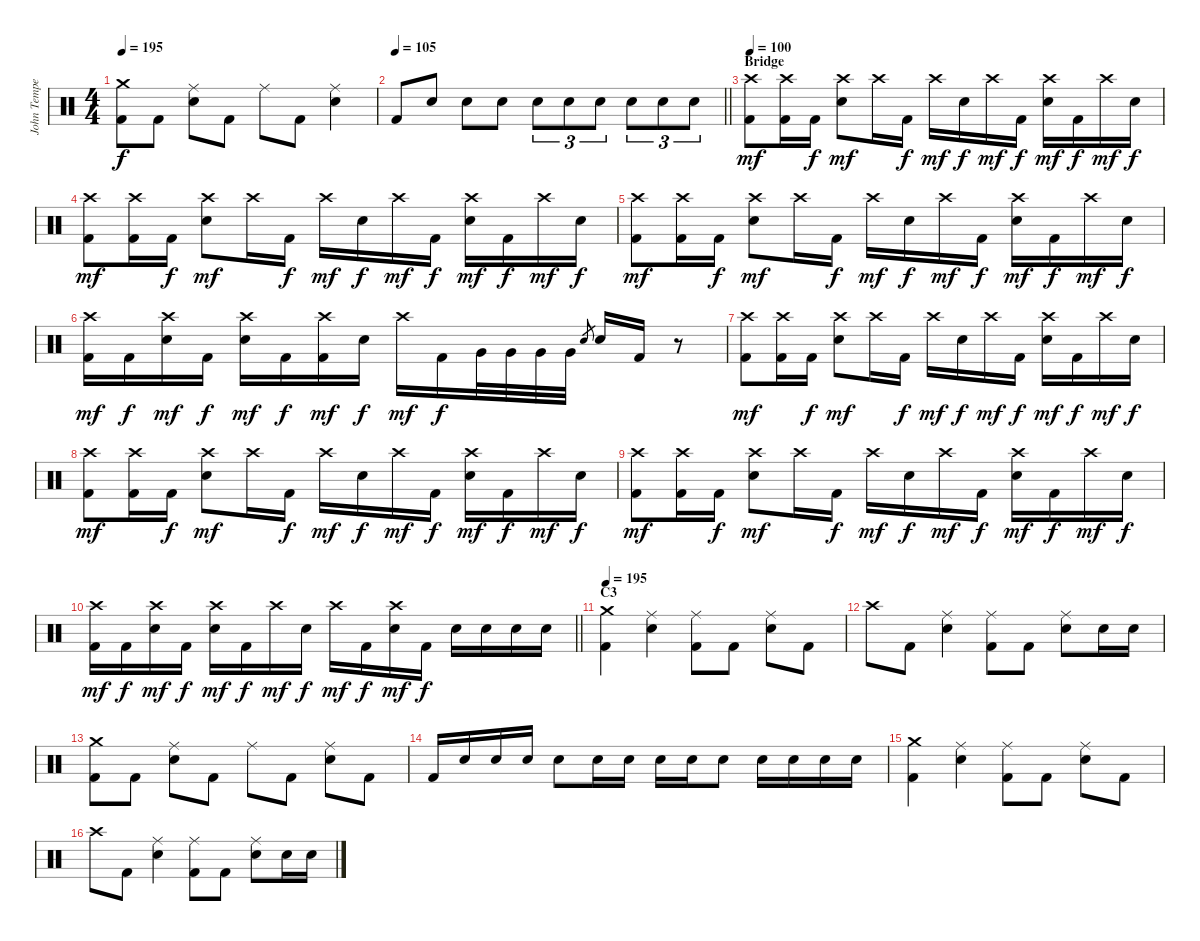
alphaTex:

\track ("John Tempesta" "John Tempe") {instrument percussion}
\staff {score}
\articulation defaults
\ts (4 4)
\tempo 195
\clef neutral
\ks c
("Crash medium (hit)" "Kick (hit) 2").8{dy f} "Kick (hit) 2".8 ("Ride (middle)" "Electric Snare (hit)").8 "Kick (hit) 2".8 "Ride (middle)".8 "Kick (hit) 2".8 ("Ride (middle)" "Electric Snare (hit)").4 |
\tempo 105
\barLineRight lightlight "Kick (hit) 2".8 "Electric Snare (hit)".8 "Electric Snare (hit)".8 "Electric Snare (hit)".8 "Electric Snare (hit)".8{tu (3 2)} "Electric Snare (hit)".8{tu (3 2)} "Electric Snare (hit)".8{tu (3 2)} "Electric Snare (hit)".8{tu (3 2)} "Electric Snare (hit)".8{tu (3 2)} "Electric Snare (hit)".8{tu (3 2)}
|
\section ("" "Bridge")
\tempo 100
("Crash high (hit)" "Kick (hit) 2").8{dy mf} ("Crash high (hit)" "Kick (hit) 2").16 "Kick (hit) 2".16{dy f} ("Crash high (hit)" "Electric Snare (hit)").8{dy mf} "Crash high (hit)".16 "Kick (hit) 2".16{dy f} "Crash high (hit)".16{dy mf} "Electric Snare (hit)".16{dy f} "Crash high (hit)".16{dy mf} "Kick (hit) 2".16{dy f} ("Crash high (hit)" "Electric Snare (hit)").16{dy mf} "Kick (hit) 2".16{dy f} "Crash high (hit)".16{dy mf} "Electric Snare (hit)".16{dy f} |
("Crash high (hit)" "Kick (hit) 2").8{dy mf} ("Crash high (hit)" "Kick (hit) 2").16 "Kick (hit) 2".16{dy f} ("Crash high (hit)" "Electric Snare (hit)").8{dy mf} "Crash high (hit)".16 "Kick (hit) 2".16{dy f} "Crash high (hit)".16{dy mf} "Electric Snare (hit)".16{dy f} "Crash high (hit)".16{dy mf} "Kick (hit) 2".16{dy f} ("Crash high (hit)" "Electric Snare (hit)").16{dy mf} "Kick (hit) 2".16{dy f} "Crash high (hit)".16{dy mf} "Electric Snare (hit)".16{dy f} |
("Crash high (hit)" "Kick (hit) 2").8{dy mf} ("Crash high (hit)" "Kick (hit) 2").16 "Kick (hit) 2".16{dy f} ("Crash high (hit)" "Electric Snare (hit)").8{dy mf} "Crash high (hit)".16 "Kick (hit) 2".16{dy f} "Crash high (hit)".16{dy mf} "Electric Snare (hit)".16{dy f} "Crash high (hit)".16{dy mf} "Kick (hit) 2".16{dy f} ("Crash high (hit)" "Electric Snare (hit)").16{dy mf} "Kick (hit) 2".16{dy f} "Crash high (hit)".16{dy mf} "Electric Snare (hit)".16{dy f} |
("Crash high (hit)" "Kick (hit) 2").16{dy mf} "Kick (hit) 2".16{dy f} ("Crash high (hit)" "Electric Snare (hit)").16{dy mf} "Kick (hit) 2".16{dy f} ("Crash high (hit)" "Electric Snare (hit)").16{dy mf} "Kick (hit) 2".16{dy f} ("Crash high (hit)" "Kick (hit) 2").16{dy mf} "Electric Snare (hit)".16{dy f} "Crash high (hit)".16{dy mf} "Kick (hit) 2".16{dy f} "Very Low Tom (hit)".32 "Very Low Tom (hit)".32 "Very Low Tom (hit)".32 "Very Low Tom (hit)".32 "Electric Snare (hit)".8{gr} "Electric Snare (hit)".16 "Kick (hit) 2".16 r.8 |
("Crash high (hit)" "Kick (hit) 2").8{dy mf} ("Crash high (hit)" "Kick (hit) 2").16 "Kick (hit) 2".16{dy f} ("Crash high (hit)" "Electric Snare (hit)").8{dy mf} "Crash high (hit)".16 "Kick (hit) 2".16{dy f} "Crash high (hit)".16{dy mf} "Electric Snare (hit)".16{dy f} "Crash high (hit)".16{dy mf} "Kick (hit) 2".16{dy f} ("Crash high (hit)" "Electric Snare (hit)").16{dy mf} "Kick (hit) 2".16{dy f} "Crash high (hit)".16{dy mf} "Electric Snare (hit)".16{dy f} |
("Crash high (hit)" "Kick (hit) 2").8{dy mf} ("Crash high (hit)" "Kick (hit) 2").16 "Kick (hit) 2".16{dy f} ("Crash high (hit)" "Electric Snare (hit)").8{dy mf} "Crash high (hit)".16 "Kick (hit) 2".16{dy f} "Crash high (hit)".16{dy mf} "Electric Snare (hit)".16{dy f} "Crash high (hit)".16{dy mf} "Kick (hit) 2".16{dy f} ("Crash high (hit)" "Electric Snare (hit)").16{dy mf} "Kick (hit) 2".16{dy f} "Crash high (hit)".16{dy mf} "Electric Snare (hit)".16{dy f} |
("Crash high (hit)" "Kick (hit) 2").8{dy mf} ("Crash high (hit)" "Kick (hit) 2").16 "Kick (hit) 2".16{dy f} ("Crash high (hit)" "Electric Snare (hit)").8{dy mf} "Crash high (hit)".16 "Kick (hit) 2".16{dy f} "Crash high (hit)".16{dy mf} "Electric Snare (hit)".16{dy f} "Crash high (hit)".16{dy mf} "Kick (hit) 2".16{dy f} ("Crash high (hit)" "Electric Snare (hit)").16{dy mf} "Kick (hit) 2".16{dy f} "Crash high (hit)".16{dy mf} "Electric Snare (hit)".16{dy f} |
\barLineRight lightlight
("Crash high (hit)" "Kick (hit) 2").16{dy mf} "Kick (hit) 2".16{dy f} ("Crash high (hit)" "Electric Snare (hit)").16{dy mf} "Kick (hit) 2".16{dy f} ("Crash high (hit)" "Electric Snare (hit)").16{dy mf} "Kick (hit) 2".16{dy f} "Crash high (hit)".16{dy mf} "Electric Snare (hit)".16{dy f} "Crash high (hit)".16{dy mf} "Kick (hit) 2".16{dy f} ("Crash high (hit)" "Electric Snare (hit)").16{dy mf} "Kick (hit) 2".16{dy f} "Electric Snare (hit)".16 "Electric Snare (hit)".16 "Electric Snare (hit)".16 "Electric Snare (hit)".16 |
\section ("" "C3")
\tempo 195
("Crash medium (hit)" "Kick (hit) 2").4 ("Ride (middle)" "Electric Snare (hit)").4 ("Ride (middle)" "Kick (hit) 2").8 "Kick (hit) 2".8 ("Ride (middle)" "Electric Snare (hit)").8 "Kick (hit) 2".8 |
"Crash high (hit)".8 "Kick (hit) 2".8 ("Ride (middle)" "Electric Snare (hit)").4 ("Ride (middle)" "Kick (hit) 2").8 "Kick (hit) 2".8 ("Ride (middle)" "Electric Snare (hit)").8 "Electric Snare (hit)".16 "Electric Snare (hit)".16 |
("Crash medium (hit)" "Kick (hit) 2").8 "Kick (hit) 2".8 ("Ride (middle)" "Electric Snare (hit)").8 "Kick (hit) 2".8 "Ride (middle)".8 "Kick (hit) 2".8 ("Ride (middle)" "Electric Snare (hit)").8 "Kick (hit) 2".8 |
"Kick (hit) 2".16 "Electric Snare (hit)".16 "Electric Snare (hit)".16 "Electric Snare (hit)".16 "Electric Snare (hit)".8 "Electric Snare (hit)".16 "Electric Snare (hit)".16 "Electric Snare (hit)".16 "Electric Snare (hit)".16 "Electric Snare (hit)".8 "Electric Snare (hit)".16 "Electric Snare (hit)".16 "Electric Snare (hit)".16 "Electric Snare (hit)".16 |
("Crash medium (hit)" "Kick (hit) 2").4 ("Ride (middle)" "Electric Snare (hit)").4 ("Ride (middle)" "Kick (hit) 2").8 "Kick (hit) 2".8 ("Ride (middle)" "Electric Snare (hit)").8 "Kick (hit) 2".8 |
"Crash high (hit)".8 "Kick (hit) 2".8 ("Ride (middle)" "Electric Snare (hit)").4 ("Ride (middle)" "Kick (hit) 2").8 "Kick (hit) 2".8 ("Ride (middle)" "Electric Snare (hit)").8 "Electric Snare (hit)".16 "Electric Snare (hit)".16
